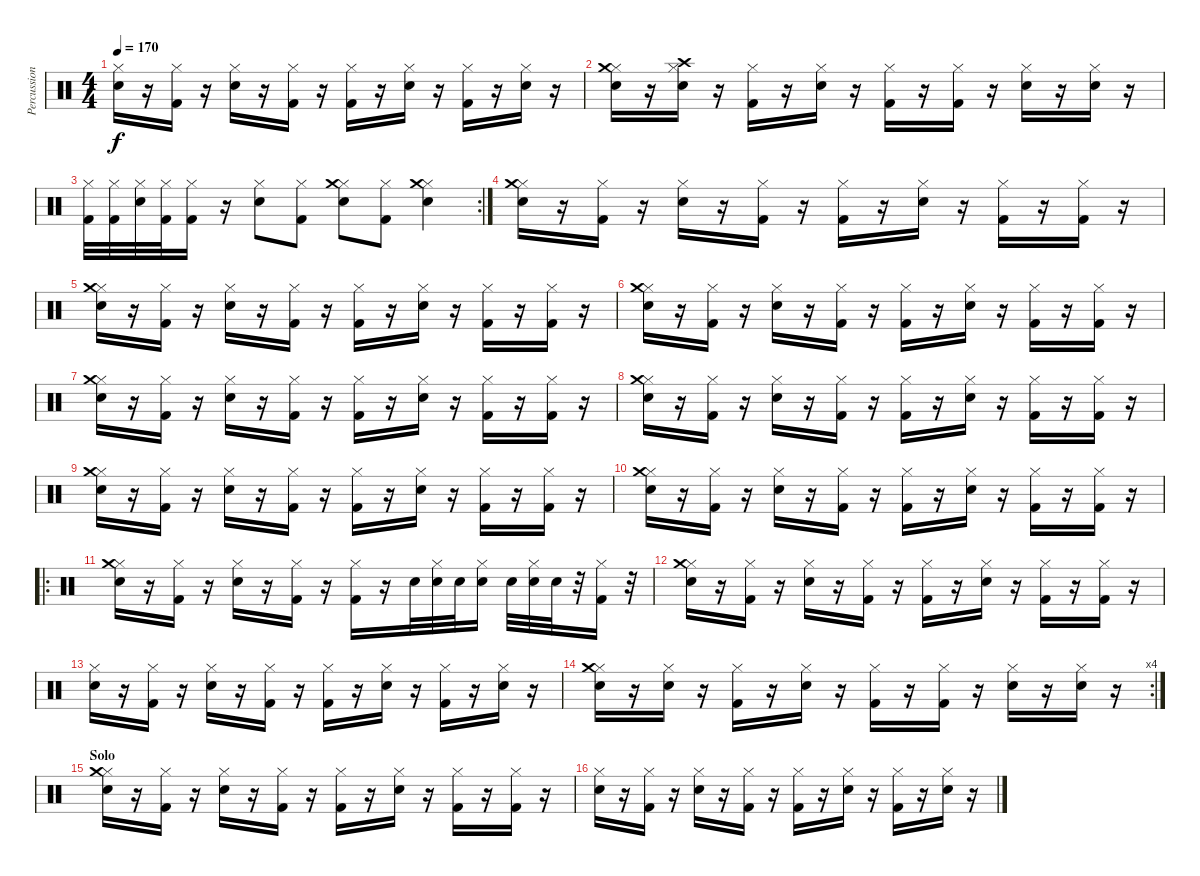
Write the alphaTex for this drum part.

\track ("Percussion" "Percussion") {instrument percussion}
\staff {score}
\articulation defaults
\ts (4 4)
\tempo 170
\clef neutral
\ks c
("Snare (hit) 2" "Hi-Hat (closed)").16{dy f} r.16 ("Kick (hit) 2" "Hi-Hat (closed)").16 r.16 ("Snare (hit) 2" "Hi-Hat (closed)").16 r.16 ("Kick (hit) 2" "Hi-Hat (closed)").16 r.16 ("Kick (hit) 2" "Hi-Hat (closed)").16 r.16 ("Snare (hit) 2" "Hi-Hat (closed)").16 r.16 ("Kick (hit) 2" "Hi-Hat (closed)").16 r.16 ("Snare (hit) 2" "Hi-Hat (closed)").16 r.16 |
("Hi-Hat (closed)" "Snare (hit) 2" "Crash medium (hit)").16 r.16 ("Snare (hit) 2" "Hi-Hat (closed)" "Crash high (hit)").16 r.16 ("Kick (hit) 2" "Hi-Hat (closed)").16 r.16 ("Snare (hit) 2" "Hi-Hat (closed)").16 r.16 ("Kick (hit) 2" "Hi-Hat (closed)").16 r.16 ("Kick (hit) 2" "Hi-Hat (closed)").16 r.16 ("Snare (hit) 2" "Hi-Hat (closed)").16 r.16 ("Snare (hit) 2" "Hi-Hat (closed)").16 r.16 |
\rc 2
("Kick (hit) 2" "Hi-Hat (closed)").32 ("Kick (hit) 2" "Hi-Hat (closed)").32 ("Snare (hit) 2" "Hi-Hat (closed)").32 ("Kick (hit) 2" "Hi-Hat (closed)").32 ("Kick (hit) 2" "Hi-Hat (closed)").16 r.16 ("Snare (hit) 2" "Hi-Hat (closed)").8 ("Kick (hit) 2" "Hi-Hat (closed)").8 ("Snare (hit) 2" "Hi-Hat (closed)" "Crash medium (hit)").8 ("Kick (hit) 2" "Hi-Hat (closed)").8 ("Snare (hit) 2" "Hi-Hat (closed)" "Crash medium (hit)").4 |
("Snare (hit) 2" "Hi-Hat (closed)" "Crash medium (hit)").16 r.16 ("Kick (hit) 2" "Hi-Hat (closed)").16 r.16 ("Snare (hit) 2" "Hi-Hat (closed)").16 r.16 ("Kick (hit) 2" "Hi-Hat (closed)").16 r.16 ("Kick (hit) 2" "Hi-Hat (closed)").16 r.16 ("Snare (hit) 2" "Hi-Hat (closed)").16 r.16 ("Kick (hit) 2" "Hi-Hat (closed)").16 r.16 ("Kick (hit) 2" "Hi-Hat (closed)").16 r.16 |
("Snare (hit) 2" "Hi-Hat (closed)" "Crash medium (hit)").16 r.16 ("Kick (hit) 2" "Hi-Hat (closed)").16 r.16 ("Snare (hit) 2" "Hi-Hat (closed)").16 r.16 ("Kick (hit) 2" "Hi-Hat (closed)").16 r.16 ("Kick (hit) 2" "Hi-Hat (closed)").16 r.16 ("Snare (hit) 2" "Hi-Hat (closed)").16 r.16 ("Kick (hit) 2" "Hi-Hat (closed)").16 r.16 ("Kick (hit) 2" "Hi-Hat (closed)").16 r.16 |
("Snare (hit) 2" "Hi-Hat (closed)" "Crash medium (hit)").16 r.16 ("Kick (hit) 2" "Hi-Hat (closed)").16 r.16 ("Snare (hit) 2" "Hi-Hat (closed)").16 r.16 ("Kick (hit) 2" "Hi-Hat (closed)").16 r.16 ("Kick (hit) 2" "Hi-Hat (closed)").16 r.16 ("Snare (hit) 2" "Hi-Hat (closed)").16 r.16 ("Kick (hit) 2" "Hi-Hat (closed)").16 r.16 ("Kick (hit) 2" "Hi-Hat (closed)").16 r.16 |
("Snare (hit) 2" "Hi-Hat (closed)" "Crash medium (hit)").16 r.16 ("Kick (hit) 2" "Hi-Hat (closed)").16 r.16 ("Snare (hit) 2" "Hi-Hat (closed)").16 r.16 ("Kick (hit) 2" "Hi-Hat (closed)").16 r.16 ("Kick (hit) 2" "Hi-Hat (closed)").16 r.16 ("Snare (hit) 2" "Hi-Hat (closed)").16 r.16 ("Kick (hit) 2" "Hi-Hat (closed)").16 r.16 ("Kick (hit) 2" "Hi-Hat (closed)").16 r.16 |
("Snare (hit) 2" "Hi-Hat (closed)" "Crash medium (hit)").16 r.16 ("Kick (hit) 2" "Hi-Hat (closed)").16 r.16 ("Snare (hit) 2" "Hi-Hat (closed)").16 r.16 ("Kick (hit) 2" "Hi-Hat (closed)").16 r.16 ("Kick (hit) 2" "Hi-Hat (closed)").16 r.16 ("Snare (hit) 2" "Hi-Hat (closed)").16 r.16 ("Kick (hit) 2" "Hi-Hat (closed)").16 r.16 ("Kick (hit) 2" "Hi-Hat (closed)").16 r.16 |
("Snare (hit) 2" "Hi-Hat (closed)" "Crash medium (hit)").16 r.16 ("Kick (hit) 2" "Hi-Hat (closed)").16 r.16 ("Snare (hit) 2" "Hi-Hat (closed)").16 r.16 ("Kick (hit) 2" "Hi-Hat (closed)").16 r.16 ("Kick (hit) 2" "Hi-Hat (closed)").16 r.16 ("Snare (hit) 2" "Hi-Hat (closed)").16 r.16 ("Kick (hit) 2" "Hi-Hat (closed)").16 r.16 ("Kick (hit) 2" "Hi-Hat (closed)").16 r.16 |
("Snare (hit) 2" "Hi-Hat (closed)" "Crash medium (hit)").16 r.16 ("Kick (hit) 2" "Hi-Hat (closed)").16 r.16 ("Snare (hit) 2" "Hi-Hat (closed)").16 r.16 ("Kick (hit) 2" "Hi-Hat (closed)").16 r.16 ("Kick (hit) 2" "Hi-Hat (closed)").16 r.16 ("Snare (hit) 2" "Hi-Hat (closed)").16 r.16 ("Kick (hit) 2" "Hi-Hat (closed)").16 r.16 ("Kick (hit) 2" "Hi-Hat (closed)").16 r.16 |
\ro
("Snare (hit) 2" "Hi-Hat (closed)" "Crash medium (hit)").16 r.16 ("Kick (hit) 2" "Hi-Hat (closed)").16 r.16 ("Snare (hit) 2" "Hi-Hat (closed)").16 r.16 ("Kick (hit) 2" "Hi-Hat (closed)").16 r.16 ("Kick (hit) 2" "Hi-Hat (closed)").16 r.16 "Snare (hit) 2".32 ("Snare (hit) 2" "Hi-Hat (closed)").32 "Snare (hit) 2".32 ("Snare (hit) 2" "Hi-Hat (closed)").16 "Snare (hit) 2".32 ("Snare (hit) 2" "Hi-Hat (closed)").32 "Snare (hit) 2".32 r.32 ("Kick (hit) 2" "Hi-Hat (closed)").16 r.32 |
("Snare (hit) 2" "Hi-Hat (closed)" "Crash medium (hit)").16 r.16 ("Kick (hit) 2" "Hi-Hat (closed)").16 r.16 ("Snare (hit) 2" "Hi-Hat (closed)").16 r.16 ("Kick (hit) 2" "Hi-Hat (closed)").16 r.16 ("Kick (hit) 2" "Hi-Hat (closed)").16 r.16 ("Snare (hit) 2" "Hi-Hat (closed)").16 r.16 ("Kick (hit) 2" "Hi-Hat (closed)").16 r.16 ("Kick (hit) 2" "Hi-Hat (closed)").16 r.16 |
("Snare (hit) 2" "Hi-Hat (closed)").16 r.16 ("Kick (hit) 2" "Hi-Hat (closed)").16 r.16 ("Snare (hit) 2" "Hi-Hat (closed)").16 r.16 ("Kick (hit) 2" "Hi-Hat (closed)").16 r.16 ("Kick (hit) 2" "Hi-Hat (closed)").16 r.16 ("Snare (hit) 2" "Hi-Hat (closed)").16 r.16 ("Kick (hit) 2" "Hi-Hat (closed)").16 r.16 ("Snare (hit) 2" "Hi-Hat (closed)").16 r.16 |
\rc 4
("Hi-Hat (closed)" "Snare (hit) 2" "Crash medium (hit)").16 r.16 ("Snare (hit) 2" "Hi-Hat (closed)").16 r.16 ("Kick (hit) 2" "Hi-Hat (closed)").16 r.16 ("Snare (hit) 2" "Hi-Hat (closed)").16 r.16 ("Kick (hit) 2" "Hi-Hat (closed)").16 r.16 ("Kick (hit) 2" "Hi-Hat (closed)").16 r.16 ("Snare (hit) 2" "Hi-Hat (closed)").16 r.16 ("Snare (hit) 2" "Hi-Hat (closed)").16 r.16 |
\section ("" "Solo")
("Snare (hit) 2" "Hi-Hat (closed)" "Crash medium (hit)").16 r.16 ("Kick (hit) 2" "Hi-Hat (closed)").16 r.16 ("Snare (hit) 2" "Hi-Hat (closed)").16 r.16 ("Kick (hit) 2" "Hi-Hat (closed)").16 r.16 ("Kick (hit) 2" "Hi-Hat (closed)").16 r.16 ("Snare (hit) 2" "Hi-Hat (closed)").16 r.16 ("Kick (hit) 2" "Hi-Hat (closed)").16 r.16 ("Kick (hit) 2" "Hi-Hat (closed)").16 r.16 |
("Snare (hit) 2" "Hi-Hat (closed)").16 r.16 ("Kick (hit) 2" "Hi-Hat (closed)").16 r.16 ("Snare (hit) 2" "Hi-Hat (closed)").16 r.16 ("Kick (hit) 2" "Hi-Hat (closed)").16 r.16 ("Kick (hit) 2" "Hi-Hat (closed)").16 r.16 ("Snare (hit) 2" "Hi-Hat (closed)").16 r.16 ("Kick (hit) 2" "Hi-Hat (closed)").16 r.16 ("Snare (hit) 2" "Hi-Hat (closed)").16 r.16
